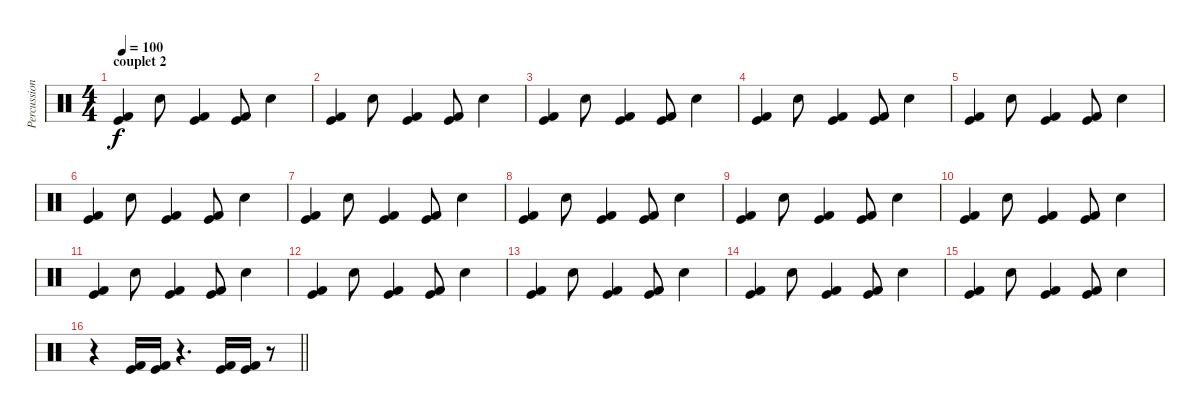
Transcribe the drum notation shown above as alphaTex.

\track ("Percussions" "Percussion") {instrument percussion}
\staff {score}
\articulation defaults
\ts (4 4)
\section ("" "couplet 2")
\tempo 100
\clef neutral
\ks c
("Kick (hit)" "Kick (hit) 2").4{dy f} "Electric Snare (hit)".8 ("Kick (hit)" "Kick (hit) 2").4 ("Kick (hit)" "Kick (hit) 2").8 "Snare (hit) 2".4 |
("Kick (hit)" "Kick (hit) 2").4 "Electric Snare (hit)".8 ("Kick (hit)" "Kick (hit) 2").4 ("Kick (hit)" "Kick (hit) 2").8 "Snare (hit) 2".4 |
("Kick (hit)" "Kick (hit) 2").4 "Electric Snare (hit)".8 ("Kick (hit)" "Kick (hit) 2").4 ("Kick (hit)" "Kick (hit) 2").8 "Snare (hit) 2".4 |
("Kick (hit)" "Kick (hit) 2").4 "Electric Snare (hit)".8 ("Kick (hit)" "Kick (hit) 2").4 ("Kick (hit)" "Kick (hit) 2").8 "Snare (hit) 2".4 |
("Kick (hit)" "Kick (hit) 2").4 "Electric Snare (hit)".8 ("Kick (hit)" "Kick (hit) 2").4 ("Kick (hit)" "Kick (hit) 2").8 "Snare (hit) 2".4 |
("Kick (hit)" "Kick (hit) 2").4 "Electric Snare (hit)".8 ("Kick (hit)" "Kick (hit) 2").4 ("Kick (hit)" "Kick (hit) 2").8 "Snare (hit) 2".4 |
("Kick (hit)" "Kick (hit) 2").4 "Electric Snare (hit)".8 ("Kick (hit)" "Kick (hit) 2").4 ("Kick (hit)" "Kick (hit) 2").8 "Snare (hit) 2".4 |
("Kick (hit)" "Kick (hit) 2").4 "Electric Snare (hit)".8 ("Kick (hit)" "Kick (hit) 2").4 ("Kick (hit)" "Kick (hit) 2").8 "Snare (hit) 2".4 |
("Kick (hit)" "Kick (hit) 2").4 "Electric Snare (hit)".8 ("Kick (hit)" "Kick (hit) 2").4 ("Kick (hit)" "Kick (hit) 2").8 "Snare (hit) 2".4 |
("Kick (hit)" "Kick (hit) 2").4 "Electric Snare (hit)".8 ("Kick (hit)" "Kick (hit) 2").4 ("Kick (hit)" "Kick (hit) 2").8 "Snare (hit) 2".4 |
("Kick (hit)" "Kick (hit) 2").4 "Electric Snare (hit)".8 ("Kick (hit)" "Kick (hit) 2").4 ("Kick (hit)" "Kick (hit) 2").8 "Snare (hit) 2".4 |
("Kick (hit)" "Kick (hit) 2").4 "Electric Snare (hit)".8 ("Kick (hit)" "Kick (hit) 2").4 ("Kick (hit)" "Kick (hit) 2").8 "Snare (hit) 2".4 |
("Kick (hit)" "Kick (hit) 2").4 "Electric Snare (hit)".8 ("Kick (hit)" "Kick (hit) 2").4 ("Kick (hit)" "Kick (hit) 2").8 "Snare (hit) 2".4 |
("Kick (hit)" "Kick (hit) 2").4 "Electric Snare (hit)".8 ("Kick (hit)" "Kick (hit) 2").4 ("Kick (hit)" "Kick (hit) 2").8 "Snare (hit) 2".4 |
("Kick (hit)" "Kick (hit) 2").4 "Electric Snare (hit)".8 ("Kick (hit)" "Kick (hit) 2").4 ("Kick (hit)" "Kick (hit) 2").8 "Snare (hit) 2".4 |
\barLineRight lightlight
r.4 ("Kick (hit) 2" "Kick (hit)").16 ("Kick (hit) 2" "Kick (hit)").16 r.4{d} ("Kick (hit) 2" "Kick (hit)").16 ("Kick (hit) 2" "Kick (hit)").16 r.8
